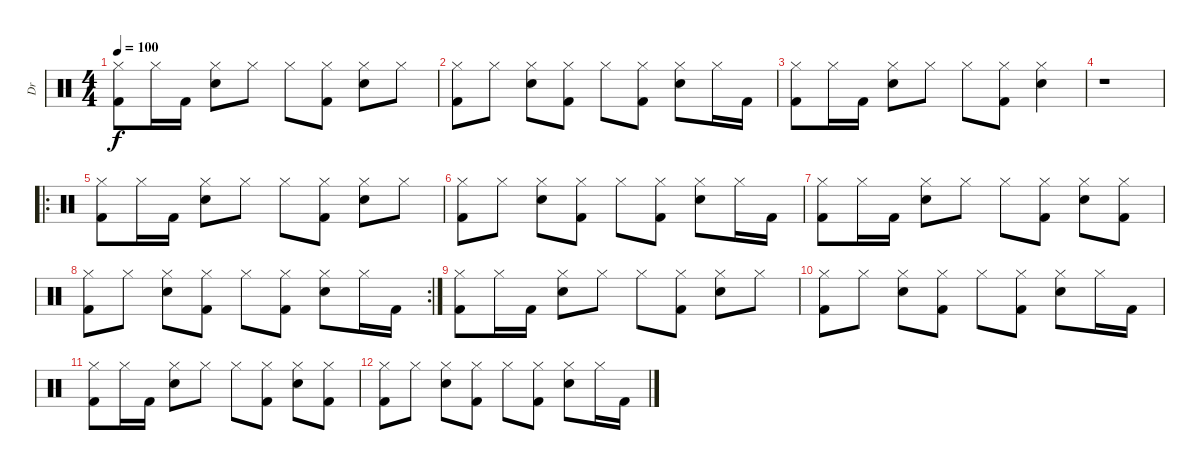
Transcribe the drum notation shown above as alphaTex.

\track ("Dr" "Dr") {instrument percussion}
\staff {score}
\articulation defaults
\ts (4 4)
\tempo 100
\clef neutral
\ks c
("Hi-Hat (closed)" "Kick (hit) 2").8{dy f} "Hi-Hat (closed)".16 "Kick (hit) 2".16 ("Hi-Hat (closed)" "Electric Snare (hit)").8 "Hi-Hat (closed)".8 "Hi-Hat (closed)".8 ("Hi-Hat (closed)" "Kick (hit) 2").8 ("Hi-Hat (closed)" "Electric Snare (hit)").8 "Hi-Hat (closed)".8 |
("Hi-Hat (closed)" "Kick (hit) 2").8 "Hi-Hat (closed)".8 ("Hi-Hat (closed)" "Electric Snare (hit)").8 ("Hi-Hat (closed)" "Kick (hit) 2").8 "Hi-Hat (closed)".8 ("Hi-Hat (closed)" "Kick (hit) 2").8 ("Hi-Hat (closed)" "Electric Snare (hit)").8 "Hi-Hat (closed)".16 "Kick (hit) 2".16 |
("Hi-Hat (closed)" "Kick (hit) 2").8 "Hi-Hat (closed)".16 "Kick (hit) 2".16 ("Hi-Hat (closed)" "Electric Snare (hit)").8 "Hi-Hat (closed)".8 "Hi-Hat (closed)".8 ("Hi-Hat (closed)" "Kick (hit) 2").8 ("Hi-Hat (closed)" "Electric Snare (hit)").4 |
r.1 |
\ro
("Hi-Hat (closed)" "Kick (hit) 2").8 "Hi-Hat (closed)".16 "Kick (hit) 2".16 ("Hi-Hat (closed)" "Electric Snare (hit)").8 "Hi-Hat (closed)".8 "Hi-Hat (closed)".8 ("Hi-Hat (closed)" "Kick (hit) 2").8 ("Hi-Hat (closed)" "Electric Snare (hit)").8 "Hi-Hat (closed)".8 |
("Hi-Hat (closed)" "Kick (hit) 2").8 "Hi-Hat (closed)".8 ("Hi-Hat (closed)" "Electric Snare (hit)").8 ("Hi-Hat (closed)" "Kick (hit) 2").8 "Hi-Hat (closed)".8 ("Hi-Hat (closed)" "Kick (hit) 2").8 ("Hi-Hat (closed)" "Electric Snare (hit)").8 "Hi-Hat (closed)".16 "Kick (hit) 2".16 |
("Hi-Hat (closed)" "Kick (hit) 2").8 "Hi-Hat (closed)".16 "Kick (hit) 2".16 ("Hi-Hat (closed)" "Electric Snare (hit)").8 "Hi-Hat (closed)".8 "Hi-Hat (closed)".8 ("Hi-Hat (closed)" "Kick (hit) 2").8 ("Hi-Hat (closed)" "Electric Snare (hit)").8 ("Hi-Hat (closed)" "Kick (hit) 2").8 |
\rc 2
("Hi-Hat (closed)" "Kick (hit) 2").8 "Hi-Hat (closed)".8 ("Hi-Hat (closed)" "Electric Snare (hit)").8 ("Hi-Hat (closed)" "Kick (hit) 2").8 "Hi-Hat (closed)".8 ("Hi-Hat (closed)" "Kick (hit) 2").8 ("Hi-Hat (closed)" "Electric Snare (hit)").8 "Hi-Hat (closed)".16 "Kick (hit) 2".16 |
("Hi-Hat (closed)" "Kick (hit) 2").8 "Hi-Hat (closed)".16 "Kick (hit) 2".16 ("Hi-Hat (closed)" "Electric Snare (hit)").8 "Hi-Hat (closed)".8 "Hi-Hat (closed)".8 ("Hi-Hat (closed)" "Kick (hit) 2").8 ("Hi-Hat (closed)" "Electric Snare (hit)").8 "Hi-Hat (closed)".8 |
("Hi-Hat (closed)" "Kick (hit) 2").8 "Hi-Hat (closed)".8 ("Hi-Hat (closed)" "Electric Snare (hit)").8 ("Hi-Hat (closed)" "Kick (hit) 2").8 "Hi-Hat (closed)".8 ("Hi-Hat (closed)" "Kick (hit) 2").8 ("Hi-Hat (closed)" "Electric Snare (hit)").8 "Hi-Hat (closed)".16 "Kick (hit) 2".16 |
("Hi-Hat (closed)" "Kick (hit) 2").8 "Hi-Hat (closed)".16 "Kick (hit) 2".16 ("Hi-Hat (closed)" "Electric Snare (hit)").8 "Hi-Hat (closed)".8 "Hi-Hat (closed)".8 ("Hi-Hat (closed)" "Kick (hit) 2").8 ("Hi-Hat (closed)" "Electric Snare (hit)").8 ("Hi-Hat (closed)" "Kick (hit) 2").8 |
("Hi-Hat (closed)" "Kick (hit) 2").8 "Hi-Hat (closed)".8 ("Hi-Hat (closed)" "Electric Snare (hit)").8 ("Hi-Hat (closed)" "Kick (hit) 2").8 "Hi-Hat (closed)".8 ("Hi-Hat (closed)" "Kick (hit) 2").8 ("Hi-Hat (closed)" "Electric Snare (hit)").8 "Hi-Hat (closed)".16 "Kick (hit) 2".16
